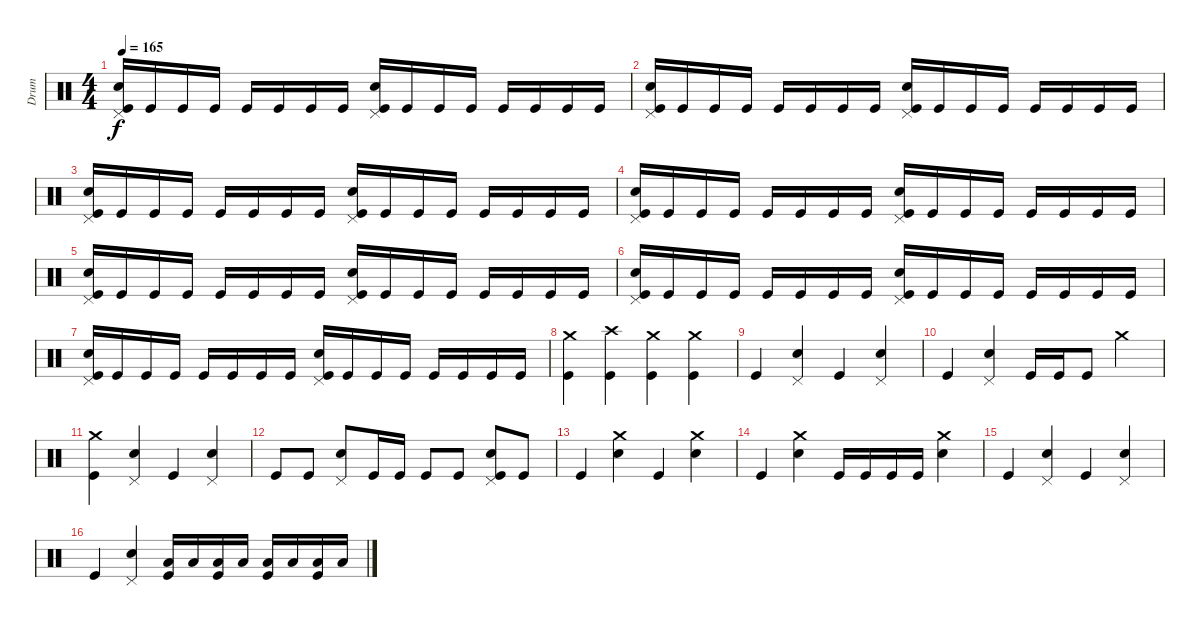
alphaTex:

\track ("Drum" "Drum") {instrument percussion}
\staff {score}
\articulation defaults
\ts (4 4)
\tempo 165
\clef neutral
\ks c
("Pedal Hi-Hat (hit)" "Electric Snare (hit)" "Kick (hit)").16{dy f} "Kick (hit)".16 "Kick (hit)".16 "Kick (hit)".16 "Kick (hit)".16 "Kick (hit)".16 "Kick (hit)".16 "Kick (hit)".16 ("Pedal Hi-Hat (hit)" "Electric Snare (hit)" "Kick (hit)").16 "Kick (hit)".16 "Kick (hit)".16 "Kick (hit)".16 "Kick (hit)".16 "Kick (hit)".16 "Kick (hit)".16 "Kick (hit)".16 |
("Pedal Hi-Hat (hit)" "Electric Snare (hit)" "Kick (hit)").16 "Kick (hit)".16 "Kick (hit)".16 "Kick (hit)".16 "Kick (hit)".16 "Kick (hit)".16 "Kick (hit)".16 "Kick (hit)".16 ("Pedal Hi-Hat (hit)" "Electric Snare (hit)" "Kick (hit)").16 "Kick (hit)".16 "Kick (hit)".16 "Kick (hit)".16 "Kick (hit)".16 "Kick (hit)".16 "Kick (hit)".16 "Kick (hit)".16 |
("Pedal Hi-Hat (hit)" "Electric Snare (hit)" "Kick (hit)").16 "Kick (hit)".16 "Kick (hit)".16 "Kick (hit)".16 "Kick (hit)".16 "Kick (hit)".16 "Kick (hit)".16 "Kick (hit)".16 ("Pedal Hi-Hat (hit)" "Electric Snare (hit)" "Kick (hit)").16 "Kick (hit)".16 "Kick (hit)".16 "Kick (hit)".16 "Kick (hit)".16 "Kick (hit)".16 "Kick (hit)".16 "Kick (hit)".16 |
("Pedal Hi-Hat (hit)" "Electric Snare (hit)" "Kick (hit)").16 "Kick (hit)".16 "Kick (hit)".16 "Kick (hit)".16 "Kick (hit)".16 "Kick (hit)".16 "Kick (hit)".16 "Kick (hit)".16 ("Pedal Hi-Hat (hit)" "Electric Snare (hit)" "Kick (hit)").16 "Kick (hit)".16 "Kick (hit)".16 "Kick (hit)".16 "Kick (hit)".16 "Kick (hit)".16 "Kick (hit)".16 "Kick (hit)".16 |
("Pedal Hi-Hat (hit)" "Electric Snare (hit)" "Kick (hit)").16 "Kick (hit)".16 "Kick (hit)".16 "Kick (hit)".16 "Kick (hit)".16 "Kick (hit)".16 "Kick (hit)".16 "Kick (hit)".16 ("Pedal Hi-Hat (hit)" "Electric Snare (hit)" "Kick (hit)").16 "Kick (hit)".16 "Kick (hit)".16 "Kick (hit)".16 "Kick (hit)".16 "Kick (hit)".16 "Kick (hit)".16 "Kick (hit)".16 |
("Pedal Hi-Hat (hit)" "Electric Snare (hit)" "Kick (hit)").16 "Kick (hit)".16 "Kick (hit)".16 "Kick (hit)".16 "Kick (hit)".16 "Kick (hit)".16 "Kick (hit)".16 "Kick (hit)".16 ("Pedal Hi-Hat (hit)" "Electric Snare (hit)" "Kick (hit)").16 "Kick (hit)".16 "Kick (hit)".16 "Kick (hit)".16 "Kick (hit)".16 "Kick (hit)".16 "Kick (hit)".16 "Kick (hit)".16 |
("Pedal Hi-Hat (hit)" "Electric Snare (hit)" "Kick (hit)").16 "Kick (hit)".16 "Kick (hit)".16 "Kick (hit)".16 "Kick (hit)".16 "Kick (hit)".16 "Kick (hit)".16 "Kick (hit)".16 ("Pedal Hi-Hat (hit)" "Electric Snare (hit)" "Kick (hit)").16 "Kick (hit)".16 "Kick (hit)".16 "Kick (hit)".16 "Kick (hit)".16 "Kick (hit)".16 "Kick (hit)".16 "Kick (hit)".16 |
("Crash medium (hit)" "Kick (hit)").4 ("Crash high (hit)" "Kick (hit)").4 ("Crash medium (hit)" "Kick (hit)").4 ("Crash medium (hit)" "Kick (hit)").4 |
"Kick (hit)".4 ("Pedal Hi-Hat (hit)" "Electric Snare (hit)").4 "Kick (hit)".4 ("Pedal Hi-Hat (hit)" "Electric Snare (hit)").4 |
"Kick (hit)".4 ("Pedal Hi-Hat (hit)" "Electric Snare (hit)").4 "Kick (hit)".16 "Kick (hit)".16 "Kick (hit)".8 "Crash medium (hit)".4 |
("Crash medium (hit)" "Kick (hit)").4 ("Pedal Hi-Hat (hit)" "Electric Snare (hit)").4 "Kick (hit)".4 ("Pedal Hi-Hat (hit)" "Electric Snare (hit)").4 |
"Kick (hit)".8 "Kick (hit)".8 ("Pedal Hi-Hat (hit)" "Electric Snare (hit)").8 "Kick (hit)".16 "Kick (hit)".16 "Kick (hit)".8 "Kick (hit)".8 ("Pedal Hi-Hat (hit)" "Electric Snare (hit)" "Kick (hit)").8 "Kick (hit)".8 |
"Kick (hit)".4 ("Crash medium (hit)" "Electric Snare (hit)").4 "Kick (hit)".4 ("Crash medium (hit)" "Electric Snare (hit)").4 |
"Kick (hit)".4 ("Crash medium (hit)" "Electric Snare (hit)").4 "Kick (hit)".16 "Kick (hit)".16 "Kick (hit)".16 "Kick (hit)".16 ("Electric Snare (hit)" "Crash medium (hit)").4 |
"Kick (hit)".4 ("Pedal Hi-Hat (hit)" "Electric Snare (hit)").4 "Kick (hit)".4 ("Pedal Hi-Hat (hit)" "Electric Snare (hit)").4 |
"Kick (hit)".4 ("Pedal Hi-Hat (hit)" "Electric Snare (hit)").4 ("Low Tom (hit)" "Kick (hit)").16 "Low Tom (hit)".16 ("Low Tom (hit)" "Kick (hit)").16 "Low Tom (hit)".16 ("Low Tom (hit)" "Kick (hit)").16 "Low Tom (hit)".16 ("Low Tom (hit)" "Kick (hit)").16 "Low Tom (hit)".16
